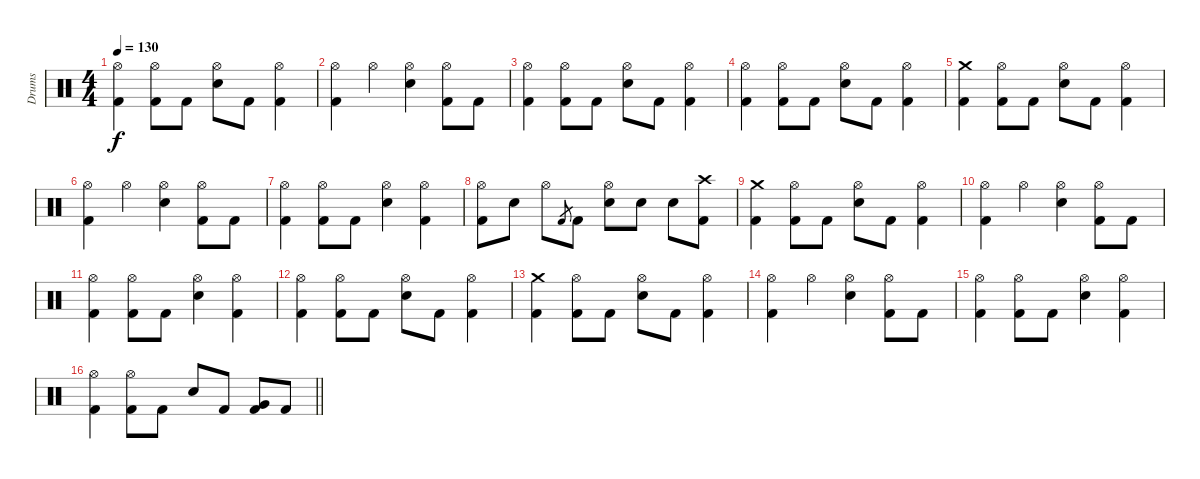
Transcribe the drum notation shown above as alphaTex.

\track ("Drums" "Drums") {instrument percussion}
\staff {score}
\articulation defaults
\ts (4 4)
\tempo 130
\clef neutral
\ks c
("Hi-Hat (open)" "Kick (hit) 2").4{dy f} ("Hi-Hat (open)" "Kick (hit) 2").8 "Kick (hit) 2".8 ("Hi-Hat (open)" "Electric Snare (hit)").8 "Kick (hit) 2".8 ("Hi-Hat (open)" "Kick (hit) 2").4 |
("Hi-Hat (open)" "Kick (hit) 2").4 "Hi-Hat (open)".4 ("Hi-Hat (open)" "Electric Snare (hit)").4 ("Hi-Hat (open)" "Kick (hit) 2").8 "Kick (hit) 2".8 |
("Hi-Hat (open)" "Kick (hit) 2").4 ("Hi-Hat (open)" "Kick (hit) 2").8 "Kick (hit) 2".8 ("Hi-Hat (open)" "Electric Snare (hit)").8 "Kick (hit) 2".8 ("Hi-Hat (open)" "Kick (hit) 2").4 |
("Hi-Hat (open)" "Kick (hit) 2").4 ("Hi-Hat (open)" "Kick (hit) 2").8 "Kick (hit) 2".8 ("Hi-Hat (open)" "Electric Snare (hit)").8 "Kick (hit) 2".8 ("Hi-Hat (open)" "Kick (hit) 2").4 |
("Crash medium (hit)" "Kick (hit) 2").4 ("Hi-Hat (open)" "Kick (hit) 2").8 "Kick (hit) 2".8 ("Hi-Hat (open)" "Electric Snare (hit)").8 "Kick (hit) 2".8 ("Hi-Hat (open)" "Kick (hit) 2").4 |
("Hi-Hat (open)" "Kick (hit) 2").4 "Hi-Hat (open)".4 ("Hi-Hat (open)" "Electric Snare (hit)").4 ("Hi-Hat (open)" "Kick (hit) 2").8 "Kick (hit) 2".8 |
("Hi-Hat (open)" "Kick (hit) 2").4 ("Hi-Hat (open)" "Kick (hit) 2").8 "Kick (hit) 2".8 ("Hi-Hat (open)" "Electric Snare (hit)").4 ("Hi-Hat (open)" "Kick (hit) 2").4 |
("Hi-Hat (open)" "Kick (hit) 2").8 "Electric Snare (hit)".8 "Hi-Hat (open)".8 "Kick (hit) 2".8{gr} "Kick (hit) 2".8 ("Hi-Hat (open)" "Electric Snare (hit)").8 "Electric Snare (hit)".8 "Electric Snare (hit)".8 ("Crash high (hit)" "Kick (hit) 2").8 |
("Crash medium (hit)" "Kick (hit) 2").4 ("Hi-Hat (open)" "Kick (hit) 2").8 "Kick (hit) 2".8 ("Hi-Hat (open)" "Electric Snare (hit)").8 "Kick (hit) 2".8 ("Hi-Hat (open)" "Kick (hit) 2").4 |
("Hi-Hat (open)" "Kick (hit) 2").4 "Hi-Hat (open)".4 ("Hi-Hat (open)" "Electric Snare (hit)").4 ("Hi-Hat (open)" "Kick (hit) 2").8 "Kick (hit) 2".8 |
("Hi-Hat (open)" "Kick (hit) 2").4 ("Hi-Hat (open)" "Kick (hit) 2").8 "Kick (hit) 2".8 ("Hi-Hat (open)" "Electric Snare (hit)").4 ("Hi-Hat (open)" "Kick (hit) 2").4 |
("Hi-Hat (open)" "Kick (hit) 2").4 ("Hi-Hat (open)" "Kick (hit) 2").8 "Kick (hit) 2".8 ("Hi-Hat (open)" "Electric Snare (hit)").8 "Kick (hit) 2".8 ("Hi-Hat (open)" "Kick (hit) 2").4 |
("Crash medium (hit)" "Kick (hit) 2").4 ("Hi-Hat (open)" "Kick (hit) 2").8 "Kick (hit) 2".8 ("Hi-Hat (open)" "Electric Snare (hit)").8 "Kick (hit) 2".8 ("Hi-Hat (open)" "Kick (hit) 2").4 |
("Hi-Hat (open)" "Kick (hit) 2").4 "Hi-Hat (open)".4 ("Hi-Hat (open)" "Electric Snare (hit)").4 ("Hi-Hat (open)" "Kick (hit) 2").8 "Kick (hit) 2".8 |
("Hi-Hat (open)" "Kick (hit) 2").4 ("Hi-Hat (open)" "Kick (hit) 2").8 "Kick (hit) 2".8 ("Hi-Hat (open)" "Electric Snare (hit)").4 ("Hi-Hat (open)" "Kick (hit) 2").4 |
\barLineRight lightlight
("Hi-Hat (open)" "Kick (hit) 2").4 ("Hi-Hat (open)" "Kick (hit) 2").8 "Kick (hit) 2".8 "Electric Snare (hit)".8 "Kick (hit) 2".8 ("Very Low Tom (hit)" "Kick (hit) 2").8 "Kick (hit) 2".8
